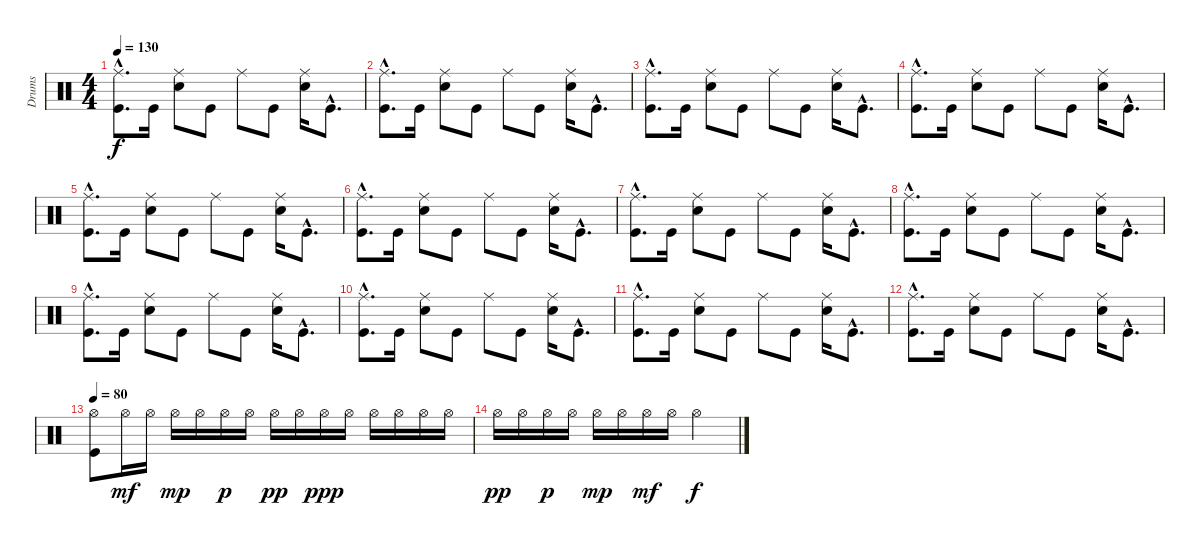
\track ("Drums" "Drums") {instrument percussion}
\staff {score}
\articulation defaults
\ts (4 4)
\tempo 130
\clef neutral
\ks c
("Ride (middle)"{hac} "Kick (hit)"{hac}).8{d dy f} "Kick (hit)".16 ("Ride (middle)" "Electric Snare (hit)").8 "Kick (hit)".8 "Ride (middle)".8 "Kick (hit)".8 ("Ride (middle)" "Electric Snare (hit)").16 "Kick (hit)"{hac}.8{d} |
("Ride (middle)"{hac} "Kick (hit)"{hac}).8{d} "Kick (hit)".16 ("Ride (middle)" "Electric Snare (hit)").8 "Kick (hit)".8 "Ride (middle)".8 "Kick (hit)".8 ("Ride (middle)" "Electric Snare (hit)").16 "Kick (hit)"{hac}.8{d} |
("Ride (middle)"{hac} "Kick (hit)"{hac}).8{d} "Kick (hit)".16 ("Ride (middle)" "Electric Snare (hit)").8 "Kick (hit)".8 "Ride (middle)".8 "Kick (hit)".8 ("Ride (middle)" "Electric Snare (hit)").16 "Kick (hit)"{hac}.8{d} |
("Ride (middle)"{hac} "Kick (hit)"{hac}).8{d} "Kick (hit)".16 ("Ride (middle)" "Electric Snare (hit)").8 "Kick (hit)".8 "Ride (middle)".8 "Kick (hit)".8 ("Ride (middle)" "Electric Snare (hit)").16 "Kick (hit)"{hac}.8{d} |
("Ride (middle)"{hac} "Kick (hit)"{hac}).8{d} "Kick (hit)".16 ("Ride (middle)" "Electric Snare (hit)").8 "Kick (hit)".8 "Ride (middle)".8 "Kick (hit)".8 ("Ride (middle)" "Electric Snare (hit)").16 "Kick (hit)"{hac}.8{d} |
("Ride (middle)"{hac} "Kick (hit)"{hac}).8{d} "Kick (hit)".16 ("Ride (middle)" "Electric Snare (hit)").8 "Kick (hit)".8 "Ride (middle)".8 "Kick (hit)".8 ("Ride (middle)" "Electric Snare (hit)").16 "Kick (hit)"{hac}.8{d} |
("Ride (middle)"{hac} "Kick (hit)"{hac}).8{d} "Kick (hit)".16 ("Ride (middle)" "Electric Snare (hit)").8 "Kick (hit)".8 "Ride (middle)".8 "Kick (hit)".8 ("Ride (middle)" "Electric Snare (hit)").16 "Kick (hit)"{hac}.8{d} |
("Ride (middle)"{hac} "Kick (hit)"{hac}).8{d} "Kick (hit)".16 ("Ride (middle)" "Electric Snare (hit)").8 "Kick (hit)".8 "Ride (middle)".8 "Kick (hit)".8 ("Ride (middle)" "Electric Snare (hit)").16 "Kick (hit)"{hac}.8{d} |
("Ride (middle)"{hac} "Kick (hit)"{hac}).8{d} "Kick (hit)".16 ("Ride (middle)" "Electric Snare (hit)").8 "Kick (hit)".8 "Ride (middle)".8 "Kick (hit)".8 ("Ride (middle)" "Electric Snare (hit)").16 "Kick (hit)"{hac}.8{d} |
("Ride (middle)"{hac} "Kick (hit)"{hac}).8{d} "Kick (hit)".16 ("Ride (middle)" "Electric Snare (hit)").8 "Kick (hit)".8 "Ride (middle)".8 "Kick (hit)".8 ("Ride (middle)" "Electric Snare (hit)").16 "Kick (hit)"{hac}.8{d} |
("Ride (middle)"{hac} "Kick (hit)"{hac}).8{d} "Kick (hit)".16 ("Ride (middle)" "Electric Snare (hit)").8 "Kick (hit)".8 "Ride (middle)".8 "Kick (hit)".8 ("Ride (middle)" "Electric Snare (hit)").16 "Kick (hit)"{hac}.8{d} |
("Ride (middle)"{hac} "Kick (hit)"{hac}).8{d} "Kick (hit)".16 ("Ride (middle)" "Electric Snare (hit)").8 "Kick (hit)".8 "Ride (middle)".8 "Kick (hit)".8 ("Ride (middle)" "Electric Snare (hit)").16 "Kick (hit)"{hac}.8{d} |
\tempo 80
("Hi-Hat (open)" "Kick (hit)").8 "Hi-Hat (open)".16{dy mf} "Hi-Hat (open)".16 "Hi-Hat (open)".16{dy mp} "Hi-Hat (open)".16 "Hi-Hat (open)".16{dy p} "Hi-Hat (open)".16 "Hi-Hat (open)".16{dy pp} "Hi-Hat (open)".16 "Hi-Hat (open)".16{dy ppp} "Hi-Hat (open)".16 "Hi-Hat (open)".16 "Hi-Hat (open)".16 "Hi-Hat (open)".16 "Hi-Hat (open)".16 |
"Hi-Hat (open)".16{dy pp} "Hi-Hat (open)".16 "Hi-Hat (open)".16{dy p} "Hi-Hat (open)".16 "Hi-Hat (open)".16{dy mp} "Hi-Hat (open)".16 "Hi-Hat (open)".16{dy mf} "Hi-Hat (open)".16 "Hi-Hat (open)".2{dy f}
